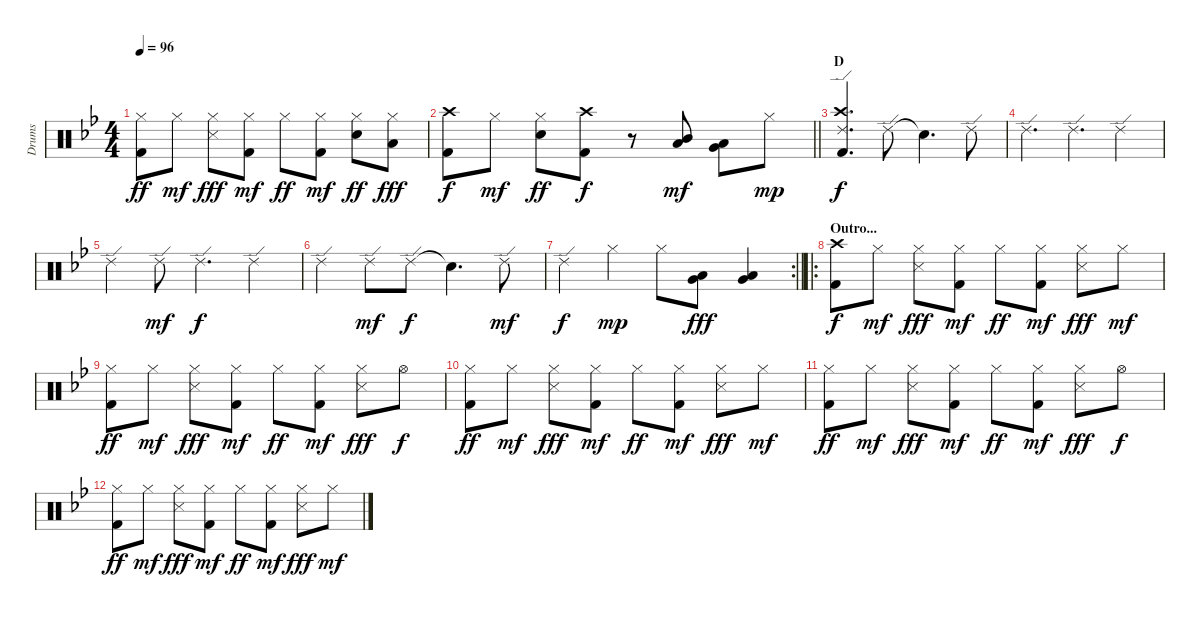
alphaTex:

\track ("Drums" "Drums") {instrument percussion}
\staff {score}
\articulation defaults
\ts (4 4)
\tempo 96
\clef neutral
\ks bb
("Hi-Hat (closed)" "Kick (hit) 2").8{dy ff} "Hi-Hat (closed)".8{dy mf} ("Hi-Hat (closed)" "Snare (side stick) 3").8{dy fff} ("Hi-Hat (closed)" "Kick (hit) 2").8{dy mf} "Hi-Hat (closed)".8{dy ff} ("Hi-Hat (closed)" "Kick (hit) 2").8{dy mf} ("Hi-Hat (closed)" "Electric Snare (hit)").8{dy ff} ("Hi-Hat (closed)" "Low Tom (hit)").8{dy fff} |
\barLineRight lightlight
("Crash high (hit)" "Kick (hit) 2").8{dy f} "Hi-Hat (closed)".8{dy mf} ("Hi-Hat (closed)" "Electric Snare (hit)").8{dy ff} ("Crash high (hit)" "Kick (hit) 2").8{dy f} r.8 ("Mid Tom (hit)" "Low Tom (hit)").8{dy mf} ("Low Tom (hit)" "Very Low Tom (hit)").8 "Hi-Hat (closed)".8{dy mp} |
\section ("" "D")
("Ride (edge) 2" "Crash high (hit)" "Kick (hit) 2").4{d dy f} "Ride (edge) 2".8 "Snare (hit)"{t}.4{d} "Ride (edge) 2".8 |
"Ride (edge) 2".4{d} "Ride (edge) 2".4{d} "Ride (edge) 2".4 |
"Ride (edge) 2".4 "Ride (edge) 2".8{dy mf} "Ride (edge) 2".4{d dy f} "Ride (edge) 2".4 |
"Ride (edge) 2".4 "Ride (edge) 2".8{dy mf} "Ride (edge) 2".8{dy f} "Snare (hit)"{t}.4{d} "Ride (edge) 2".8{dy mf} |
\rc 2
\barLineRight lightlight "Ride (edge) 2".4{dy f} "Hi-Hat (closed)".4{dy mp} "Hi-Hat (closed)".8
("Very Low Tom (hit)" "Low Floor Tom (hit)").8{dy fff} ("Very Low Tom (hit)" "Low Floor Tom (hit)").4 |
\ro
\section ("" "Outro...")
("Crash high (hit)" "Kick (hit) 2").8{dy f} "Hi-Hat (closed)".8{dy mf} ("Hi-Hat (closed)" "Snare (side stick) 3").8{dy fff} ("Hi-Hat (closed)" "Kick (hit) 2").8{dy mf} "Hi-Hat (closed)".8{dy ff} ("Hi-Hat (closed)" "Kick (hit) 2").8{dy mf} ("Hi-Hat (closed)" "Snare (side stick) 3").8{dy fff} "Hi-Hat (closed)".8{dy mf} |
("Hi-Hat (closed)" "Kick (hit) 2").8{dy ff} "Hi-Hat (closed)".8{dy mf} ("Hi-Hat (closed)" "Snare (side stick) 3").8{dy fff} ("Hi-Hat (closed)" "Kick (hit) 2").8{dy mf} "Hi-Hat (closed)".8{dy ff} ("Hi-Hat (closed)" "Kick (hit) 2").8{dy mf} ("Hi-Hat (closed)" "Snare (side stick) 3").8{dy fff} "Hi-Hat (open)".8{dy f} |
("Hi-Hat (closed)" "Kick (hit) 2").8{dy ff} "Hi-Hat (closed)".8{dy mf} ("Hi-Hat (closed)" "Snare (side stick) 3").8{dy fff} ("Hi-Hat (closed)" "Kick (hit) 2").8{dy mf} "Hi-Hat (closed)".8{dy ff} ("Hi-Hat (closed)" "Kick (hit) 2").8{dy mf} ("Hi-Hat (closed)" "Snare (side stick) 3").8{dy fff} "Hi-Hat (closed)".8{dy mf} |
("Hi-Hat (closed)" "Kick (hit) 2").8{dy ff} "Hi-Hat (closed)".8{dy mf} ("Hi-Hat (closed)" "Snare (side stick) 3").8{dy fff} ("Hi-Hat (closed)" "Kick (hit) 2").8{dy mf} "Hi-Hat (closed)".8{dy ff} ("Hi-Hat (closed)" "Kick (hit) 2").8{dy mf} ("Hi-Hat (closed)" "Snare (side stick) 3").8{dy fff} "Hi-Hat (open)".8{dy f} |
("Hi-Hat (closed)" "Kick (hit) 2").8{dy ff} "Hi-Hat (closed)".8{dy mf} ("Hi-Hat (closed)" "Snare (side stick) 3").8{dy fff} ("Hi-Hat (closed)" "Kick (hit) 2").8{dy mf} "Hi-Hat (closed)".8{dy ff} ("Hi-Hat (closed)" "Kick (hit) 2").8{dy mf} ("Hi-Hat (closed)" "Snare (side stick) 3").8{dy fff} "Hi-Hat (closed)".8{dy mf}
